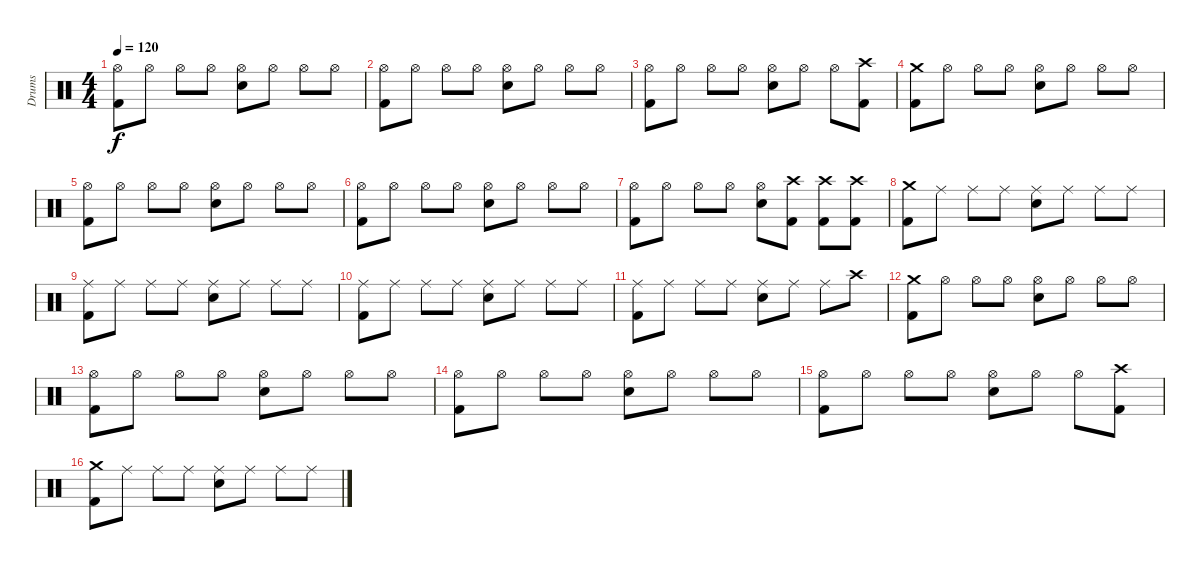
\track ("Drums" "Drums") {instrument percussion}
\staff {score}
\articulation defaults
\ts (4 4)
\tempo 120
\clef neutral
\ks c
("Hi-Hat (open)" "Kick (hit) 2").8{dy f} "Hi-Hat (open)".8 "Hi-Hat (open)".8 "Hi-Hat (open)".8 ("Hi-Hat (open)" "Electric Snare (hit)").8 "Hi-Hat (open)".8 "Hi-Hat (open)".8 "Hi-Hat (open)".8 |
("Hi-Hat (open)" "Kick (hit) 2").8 "Hi-Hat (open)".8 "Hi-Hat (open)".8 "Hi-Hat (open)".8 ("Hi-Hat (open)" "Electric Snare (hit)").8 "Hi-Hat (open)".8 "Hi-Hat (open)".8 "Hi-Hat (open)".8 |
("Hi-Hat (open)" "Kick (hit) 2").8 "Hi-Hat (open)".8 "Hi-Hat (open)".8 "Hi-Hat (open)".8 ("Hi-Hat (open)" "Electric Snare (hit)").8 "Hi-Hat (open)".8 "Hi-Hat (open)".8 ("Crash high (hit)" "Kick (hit) 2").8 |
("Crash medium (hit)" "Kick (hit) 2").8 "Hi-Hat (open)".8 "Hi-Hat (open)".8 "Hi-Hat (open)".8 ("Hi-Hat (open)" "Electric Snare (hit)").8 "Hi-Hat (open)".8 "Hi-Hat (open)".8 "Hi-Hat (open)".8 |
("Hi-Hat (open)" "Kick (hit) 2").8 "Hi-Hat (open)".8 "Hi-Hat (open)".8 "Hi-Hat (open)".8 ("Hi-Hat (open)" "Electric Snare (hit)").8 "Hi-Hat (open)".8 "Hi-Hat (open)".8 "Hi-Hat (open)".8 |
("Hi-Hat (open)" "Kick (hit) 2").8 "Hi-Hat (open)".8 "Hi-Hat (open)".8 "Hi-Hat (open)".8 ("Hi-Hat (open)" "Electric Snare (hit)").8 "Hi-Hat (open)".8 "Hi-Hat (open)".8 "Hi-Hat (open)".8 |
("Hi-Hat (open)" "Kick (hit) 2").8 "Hi-Hat (open)".8 "Hi-Hat (open)".8 "Hi-Hat (open)".8 ("Hi-Hat (open)" "Electric Snare (hit)").8 ("Crash high (hit)" "Kick (hit) 2").8 ("Crash high (hit)" "Kick (hit) 2").8 ("Crash high (hit)" "Kick (hit) 2").8 |
("Crash medium (hit)" "Kick (hit) 2").8 "Ride (middle)".8 "Ride (middle)".8 "Ride (middle)".8 ("Ride (middle)" "Electric Snare (hit)").8 "Ride (middle)".8 "Ride (middle)".8 "Ride (middle)".8 |
("Ride (middle)" "Kick (hit) 2").8 "Ride (middle)".8 "Ride (middle)".8 "Ride (middle)".8 ("Ride (middle)" "Electric Snare (hit)").8 "Ride (middle)".8 "Ride (middle)".8 "Ride (middle)".8 |
("Ride (middle)" "Kick (hit) 2").8 "Ride (middle)".8 "Ride (middle)".8 "Ride (middle)".8 ("Ride (middle)" "Electric Snare (hit)").8 "Ride (middle)".8 "Ride (middle)".8 "Ride (middle)".8 |
("Ride (middle)" "Kick (hit) 2").8 "Ride (middle)".8 "Ride (middle)".8 "Ride (middle)".8 ("Ride (middle)" "Electric Snare (hit)").8 "Ride (middle)".8 "Ride (middle)".8 "Crash high (hit)".8 |
("Crash medium (hit)" "Kick (hit) 2").8 "Hi-Hat (open)".8 "Hi-Hat (open)".8 "Hi-Hat (open)".8 ("Hi-Hat (open)" "Electric Snare (hit)").8 "Hi-Hat (open)".8 "Hi-Hat (open)".8 "Hi-Hat (open)".8 |
("Hi-Hat (open)" "Kick (hit) 2").8 "Hi-Hat (open)".8 "Hi-Hat (open)".8 "Hi-Hat (open)".8 ("Hi-Hat (open)" "Electric Snare (hit)").8 "Hi-Hat (open)".8 "Hi-Hat (open)".8 "Hi-Hat (open)".8 |
("Hi-Hat (open)" "Kick (hit) 2").8 "Hi-Hat (open)".8 "Hi-Hat (open)".8 "Hi-Hat (open)".8 ("Hi-Hat (open)" "Electric Snare (hit)").8 "Hi-Hat (open)".8 "Hi-Hat (open)".8 "Hi-Hat (open)".8 |
("Hi-Hat (open)" "Kick (hit) 2").8 "Hi-Hat (open)".8 "Hi-Hat (open)".8 "Hi-Hat (open)".8 ("Hi-Hat (open)" "Electric Snare (hit)").8 "Hi-Hat (open)".8 "Hi-Hat (open)".8 ("Crash high (hit)" "Kick (hit) 2").8 |
("Crash medium (hit)" "Kick (hit) 2").8 "Ride (middle)".8 "Ride (middle)".8 "Ride (middle)".8 ("Ride (middle)" "Electric Snare (hit)").8 "Ride (middle)".8 "Ride (middle)".8 "Ride (middle)".8
